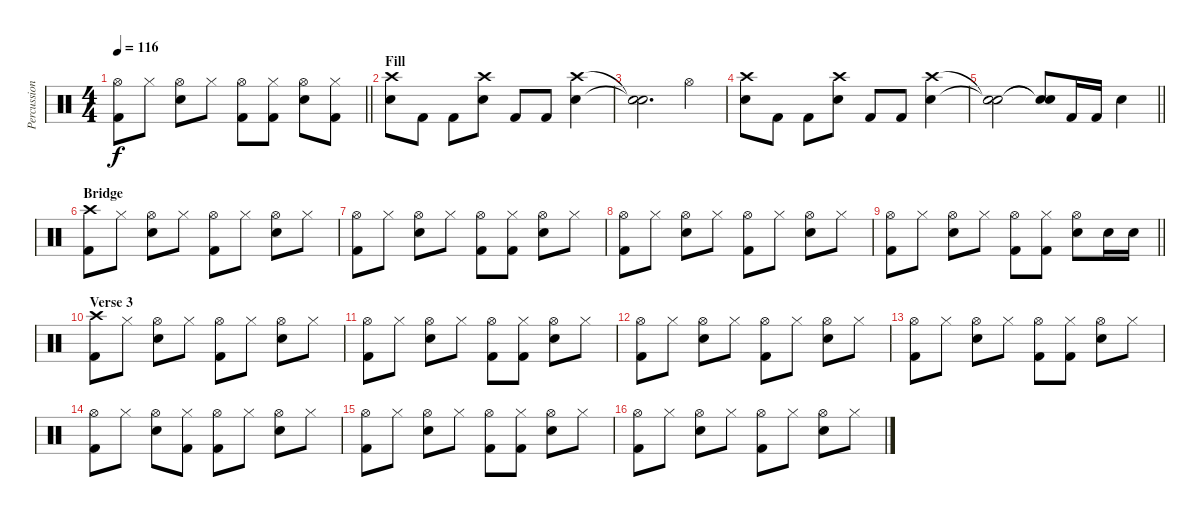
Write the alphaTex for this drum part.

\track ("Percussion" "Percussion") {instrument percussion}
\staff {score}
\articulation defaults
\ts (4 4)
\tempo 116
\clef neutral
\barLineRight lightlight
\ks c
("Hi-Hat (open)" "Kick (hit) 2").8{dy f} "Hi-Hat (closed)".8 ("Hi-Hat (open)" "Snare (hit) 2").8 "Hi-Hat (closed)".8 ("Hi-Hat (open)" "Kick (hit) 2").8 ("Hi-Hat (closed)" "Kick (hit) 2").8 ("Hi-Hat (open)" "Snare (hit) 2").8 ("Hi-Hat (closed)" "Kick (hit) 2").8 |
\section ("" "Fill")
("Crash high (hit)" "Snare (hit) 2").8 "Kick (hit) 2".8 "Kick (hit) 2".8 ("Crash high (hit)" "Snare (hit) 2").8 "Kick (hit) 2".8 "Kick (hit) 2".8 ("Crash high (hit)" "Snare (hit) 2").4 |
("Snare (hit)"{t} "Snare (hit)"{t}).2{d} "Hi-Hat (open)".4 |
("Crash high (hit)" "Snare (hit) 2").8 "Kick (hit) 2".8 "Kick (hit) 2".8 ("Crash high (hit)" "Snare (hit) 2").8 "Kick (hit) 2".8 "Kick (hit) 2".8 ("Crash high (hit)" "Snare (hit) 2").4 |
\barLineRight lightlight
("Snare (hit)"{t} "Snare (hit)"{t}).2 ("Snare (hit)"{t} "Snare (hit)"{t}).8 "Kick (hit) 2".16 "Kick (hit) 2".16 "Snare (hit) 2".4 |
\section ("" "Bridge")
("Crash high (hit)" "Kick (hit) 2").8 "Hi-Hat (closed)".8 ("Hi-Hat (open)" "Snare (hit) 2").8 "Hi-Hat (closed)".8 ("Hi-Hat (open)" "Kick (hit) 2").8 "Hi-Hat (closed)".8 ("Hi-Hat (open)" "Snare (hit) 2").8 "Hi-Hat (closed)".8 |
("Hi-Hat (open)" "Kick (hit) 2").8 "Hi-Hat (closed)".8 ("Hi-Hat (open)" "Snare (hit) 2").8 "Hi-Hat (closed)".8 ("Hi-Hat (open)" "Kick (hit) 2").8 ("Hi-Hat (closed)" "Kick (hit) 2").8 ("Hi-Hat (open)" "Snare (hit) 2").8 "Hi-Hat (closed)".8 |
("Hi-Hat (open)" "Kick (hit) 2").8 "Hi-Hat (closed)".8 ("Hi-Hat (open)" "Snare (hit) 2").8 "Hi-Hat (closed)".8 ("Hi-Hat (open)" "Kick (hit) 2").8 "Hi-Hat (closed)".8 ("Hi-Hat (open)" "Snare (hit) 2").8 "Hi-Hat (closed)".8 |
\barLineRight lightlight
("Hi-Hat (open)" "Kick (hit) 2").8 "Hi-Hat (closed)".8 ("Hi-Hat (open)" "Snare (hit) 2").8 "Hi-Hat (closed)".8 ("Hi-Hat (open)" "Kick (hit) 2").8 ("Hi-Hat (closed)" "Kick (hit) 2").8 ("Hi-Hat (open)" "Snare (hit) 2").8 "Snare (hit) 2".16 "Snare (hit) 2".16 |
\section ("" "Verse 3")
("Crash high (hit)" "Kick (hit) 2").8 "Hi-Hat (closed)".8 ("Hi-Hat (open)" "Snare (hit) 2").8 "Hi-Hat (closed)".8 ("Hi-Hat (open)" "Kick (hit) 2").8 "Hi-Hat (closed)".8 ("Hi-Hat (open)" "Snare (hit) 2").8 "Hi-Hat (closed)".8 |
("Hi-Hat (open)" "Kick (hit) 2").8 "Hi-Hat (closed)".8 ("Hi-Hat (open)" "Snare (hit) 2").8 "Hi-Hat (closed)".8 ("Hi-Hat (open)" "Kick (hit) 2").8 ("Hi-Hat (closed)" "Kick (hit) 2").8 ("Hi-Hat (open)" "Snare (hit) 2").8 "Hi-Hat (closed)".8 |
("Hi-Hat (open)" "Kick (hit) 2").8 "Hi-Hat (closed)".8 ("Hi-Hat (open)" "Snare (hit) 2").8 "Hi-Hat (closed)".8 ("Hi-Hat (open)" "Kick (hit) 2").8 "Hi-Hat (closed)".8 ("Hi-Hat (open)" "Snare (hit) 2").8 "Hi-Hat (closed)".8 |
("Hi-Hat (open)" "Kick (hit) 2").8 "Hi-Hat (closed)".8 ("Hi-Hat (open)" "Snare (hit) 2").8 "Hi-Hat (closed)".8 ("Hi-Hat (open)" "Kick (hit) 2").8 ("Hi-Hat (closed)" "Kick (hit) 2").8 ("Hi-Hat (open)" "Snare (hit) 2").8 "Hi-Hat (closed)".8 |
("Hi-Hat (open)" "Kick (hit) 2").8 "Hi-Hat (closed)".8 ("Hi-Hat (open)" "Snare (hit) 2").8 ("Hi-Hat (closed)" "Kick (hit) 2").8 ("Hi-Hat (open)" "Kick (hit) 2").8 "Hi-Hat (closed)".8 ("Hi-Hat (open)" "Snare (hit) 2").8 "Hi-Hat (closed)".8 |
("Hi-Hat (open)" "Kick (hit) 2").8 "Hi-Hat (closed)".8 ("Hi-Hat (open)" "Snare (hit) 2").8 "Hi-Hat (closed)".8 ("Hi-Hat (open)" "Kick (hit) 2").8 ("Hi-Hat (closed)" "Kick (hit) 2").8 ("Hi-Hat (open)" "Snare (hit) 2").8 "Hi-Hat (closed)".8 |
("Hi-Hat (open)" "Kick (hit) 2").8 "Hi-Hat (closed)".8 ("Hi-Hat (open)" "Snare (hit) 2").8 "Hi-Hat (closed)".8 ("Hi-Hat (open)" "Kick (hit) 2").8 "Hi-Hat (closed)".8 ("Hi-Hat (open)" "Snare (hit) 2").8 "Hi-Hat (closed)".8
